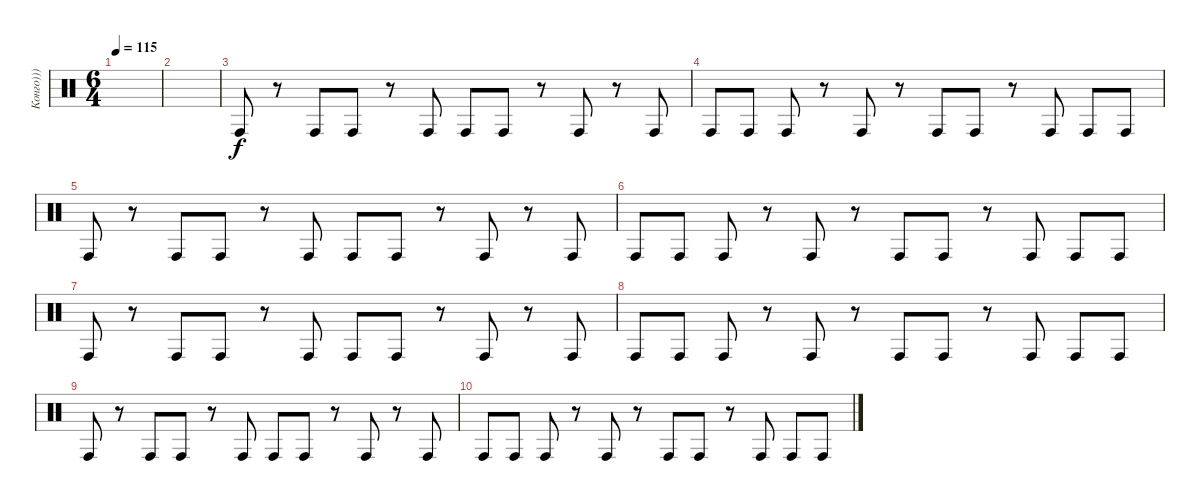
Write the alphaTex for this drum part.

\track ("Конго)))" "Конго)))") {instrument percussion}
\staff {score}
\articulation defaults
\ts (6 4)
\tempo 115
\clef neutral
\ks c
|
|
"Conga high (hit)".8 r.8 "Conga high (hit)".8 "Conga high (hit)".8 r.8 "Conga high (hit)".8 "Conga high (hit)".8 "Conga high (hit)".8 r.8 "Conga high (hit)".8 r.8 "Conga high (hit)".8 |
"Conga high (hit)".8 "Conga high (hit)".8 "Conga high (hit)".8 r.8 "Conga high (hit)".8 r.8 "Conga high (hit)".8 "Conga high (hit)".8 r.8 "Conga high (hit)".8 "Conga high (hit)".8 "Conga high (hit)".8 |
"Conga high (hit)".8 r.8 "Conga high (hit)".8 "Conga high (hit)".8 r.8 "Conga high (hit)".8 "Conga high (hit)".8 "Conga high (hit)".8 r.8 "Conga high (hit)".8 r.8 "Conga high (hit)".8 |
"Conga high (hit)".8 "Conga high (hit)".8 "Conga high (hit)".8 r.8 "Conga high (hit)".8 r.8 "Conga high (hit)".8 "Conga high (hit)".8 r.8 "Conga high (hit)".8 "Conga high (hit)".8 "Conga high (hit)".8 |
"Conga high (hit)".8 r.8 "Conga high (hit)".8 "Conga high (hit)".8 r.8 "Conga high (hit)".8 "Conga high (hit)".8 "Conga high (hit)".8 r.8 "Conga high (hit)".8 r.8 "Conga high (hit)".8 |
"Conga high (hit)".8 "Conga high (hit)".8 "Conga high (hit)".8 r.8 "Conga high (hit)".8 r.8 "Conga high (hit)".8 "Conga high (hit)".8 r.8 "Conga high (hit)".8 "Conga high (hit)".8 "Conga high (hit)".8 |
"Conga high (hit)".8 r.8 "Conga high (hit)".8 "Conga high (hit)".8 r.8 "Conga high (hit)".8 "Conga high (hit)".8 "Conga high (hit)".8 r.8 "Conga high (hit)".8 r.8 "Conga high (hit)".8 |
"Conga high (hit)".8 "Conga high (hit)".8 "Conga high (hit)".8 r.8 "Conga high (hit)".8 r.8 "Conga high (hit)".8 "Conga high (hit)".8 r.8 "Conga high (hit)".8 "Conga high (hit)".8 "Conga high (hit)".8
